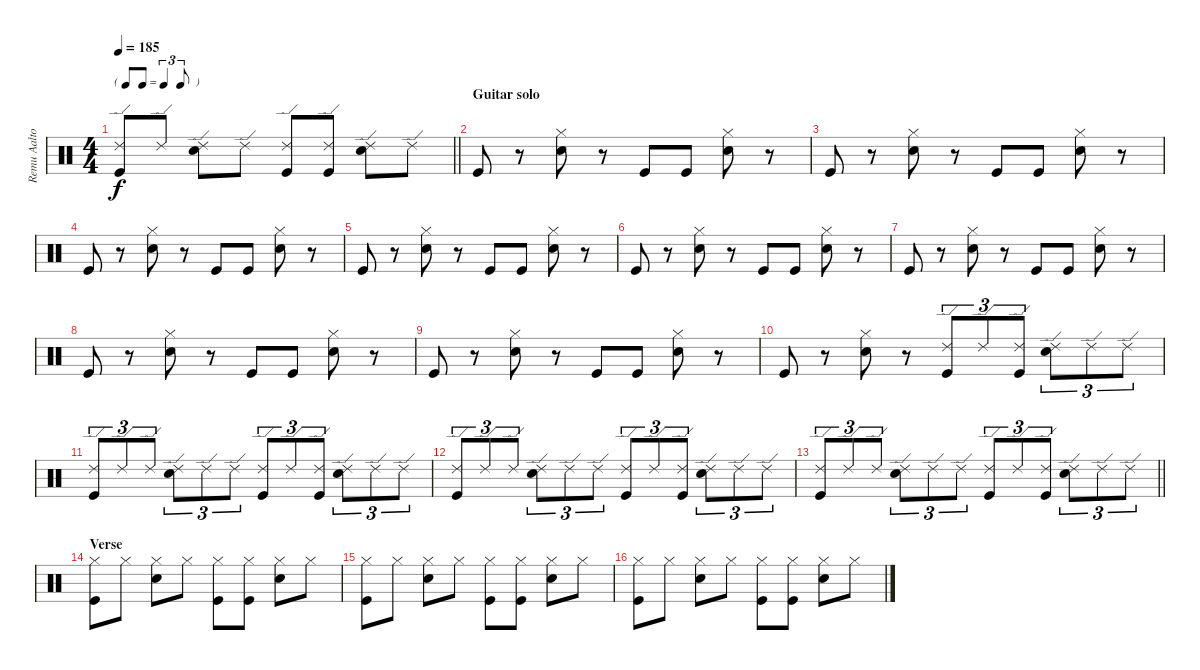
\track ("Remu Aaltonen" "Remu Aalto") {instrument percussion}
\staff {score}
\articulation defaults
\ts (4 4)
\tf triplet8th
\tempo 185
\clef neutral
\barLineRight lightlight
\ks c
("Ride (edge) 2" "Kick (hit)").8{dy f} "Ride (edge) 2".8 ("Ride (edge) 2" "Snare (hit) 2").8 "Ride (edge) 2".8 ("Ride (edge) 2" "Kick (hit)").8 ("Ride (edge) 2" "Kick (hit)").8 ("Ride (edge) 2" "Snare (hit) 2").8 "Ride (edge) 2".8 |
\section ("" "Guitar solo")
"Kick (hit)".8 r.8 ("Hi-Hat (closed)" "Snare (hit) 2").8 r.8 "Kick (hit)".8 "Kick (hit)".8 ("Hi-Hat (closed)" "Snare (hit) 2").8 r.8 |
"Kick (hit)".8 r.8 ("Hi-Hat (closed)" "Snare (hit) 2").8 r.8 "Kick (hit)".8 "Kick (hit)".8 ("Hi-Hat (closed)" "Snare (hit) 2").8 r.8 |
"Kick (hit)".8 r.8 ("Hi-Hat (closed)" "Snare (hit) 2").8 r.8 "Kick (hit)".8 "Kick (hit)".8 ("Hi-Hat (closed)" "Snare (hit) 2").8 r.8 |
"Kick (hit)".8 r.8 ("Hi-Hat (closed)" "Snare (hit) 2").8 r.8 "Kick (hit)".8 "Kick (hit)".8 ("Hi-Hat (closed)" "Snare (hit) 2").8 r.8 |
"Kick (hit)".8 r.8 ("Hi-Hat (closed)" "Snare (hit) 2").8 r.8 "Kick (hit)".8 "Kick (hit)".8 ("Hi-Hat (closed)" "Snare (hit) 2").8 r.8 |
"Kick (hit)".8 r.8 ("Hi-Hat (closed)" "Snare (hit) 2").8 r.8 "Kick (hit)".8 "Kick (hit)".8 ("Hi-Hat (closed)" "Snare (hit) 2").8 r.8 |
"Kick (hit)".8 r.8 ("Hi-Hat (closed)" "Snare (hit) 2").8 r.8 "Kick (hit)".8 "Kick (hit)".8 ("Hi-Hat (closed)" "Snare (hit) 2").8 r.8 |
"Kick (hit)".8 r.8 ("Hi-Hat (closed)" "Snare (hit) 2").8 r.8 "Kick (hit)".8 "Kick (hit)".8 ("Hi-Hat (closed)" "Snare (hit) 2").8 r.8 |
"Kick (hit)".8 r.8 ("Hi-Hat (closed)" "Snare (hit) 2").8 r.8 ("Ride (edge) 2" "Kick (hit)").8{tu (3 2)} "Ride (edge) 2".8{tu (3 2)} ("Ride (edge) 2" "Kick (hit)").8{tu (3 2)} ("Ride (edge) 2" "Snare (hit) 2").8{tu (3 2)} "Ride (edge) 2".8{tu (3 2)} "Ride (edge) 2".8{tu (3 2)} |
("Ride (edge) 2" "Kick (hit)").8{tu (3 2)} "Ride (edge) 2".8{tu (3 2)} "Ride (edge) 2".8{tu (3 2)} ("Ride (edge) 2" "Snare (hit) 2").8{tu (3 2)} "Ride (edge) 2".8{tu (3 2)} "Ride (edge) 2".8{tu (3 2)} ("Ride (edge) 2" "Kick (hit)").8{tu (3 2)} "Ride (edge) 2".8{tu (3 2)} ("Ride (edge) 2" "Kick (hit)").8{tu (3 2)} ("Ride (edge) 2" "Snare (hit) 2").8{tu (3 2)} "Ride (edge) 2".8{tu (3 2)} "Ride (edge) 2".8{tu (3 2)} |
("Ride (edge) 2" "Kick (hit)").8{tu (3 2)} "Ride (edge) 2".8{tu (3 2)} "Ride (edge) 2".8{tu (3 2)} ("Ride (edge) 2" "Snare (hit) 2").8{tu (3 2)} "Ride (edge) 2".8{tu (3 2)} "Ride (edge) 2".8{tu (3 2)} ("Ride (edge) 2" "Kick (hit)").8{tu (3 2)} "Ride (edge) 2".8{tu (3 2)} ("Ride (edge) 2" "Kick (hit)").8{tu (3 2)} ("Ride (edge) 2" "Snare (hit) 2").8{tu (3 2)} "Ride (edge) 2".8{tu (3 2)} "Ride (edge) 2".8{tu (3 2)} |
\barLineRight lightlight
("Ride (edge) 2" "Kick (hit)").8{tu (3 2)} "Ride (edge) 2".8{tu (3 2)} "Ride (edge) 2".8{tu (3 2)} ("Ride (edge) 2" "Snare (hit) 2").8{tu (3 2)} "Ride (edge) 2".8{tu (3 2)} "Ride (edge) 2".8{tu (3 2)} ("Ride (edge) 2" "Kick (hit)").8{tu (3 2)} "Ride (edge) 2".8{tu (3 2)} ("Ride (edge) 2" "Kick (hit)").8{tu (3 2)} ("Ride (edge) 2" "Snare (hit) 2").8{tu (3 2)} "Ride (edge) 2".8{tu (3 2)} "Ride (edge) 2".8{tu (3 2)} |
\section ("" "Verse")
("Hi-Hat (closed)" "Kick (hit)").8 "Hi-Hat (closed)".8 ("Hi-Hat (closed)" "Snare (hit) 2").8 "Hi-Hat (closed)".8 ("Hi-Hat (closed)" "Kick (hit)").8 ("Hi-Hat (closed)" "Kick (hit)").8 ("Hi-Hat (closed)" "Snare (hit) 2").8 "Hi-Hat (closed)".8 |
("Hi-Hat (closed)" "Kick (hit)").8 "Hi-Hat (closed)".8 ("Hi-Hat (closed)" "Snare (hit) 2").8 "Hi-Hat (closed)".8 ("Hi-Hat (closed)" "Kick (hit)").8 ("Hi-Hat (closed)" "Kick (hit)").8 ("Hi-Hat (closed)" "Snare (hit) 2").8 "Hi-Hat (closed)".8 |
("Hi-Hat (closed)" "Kick (hit)").8 "Hi-Hat (closed)".8 ("Hi-Hat (closed)" "Snare (hit) 2").8 "Hi-Hat (closed)".8 ("Hi-Hat (closed)" "Kick (hit)").8 ("Hi-Hat (closed)" "Kick (hit)").8 ("Hi-Hat (closed)" "Snare (hit) 2").8 "Hi-Hat (closed)".8
